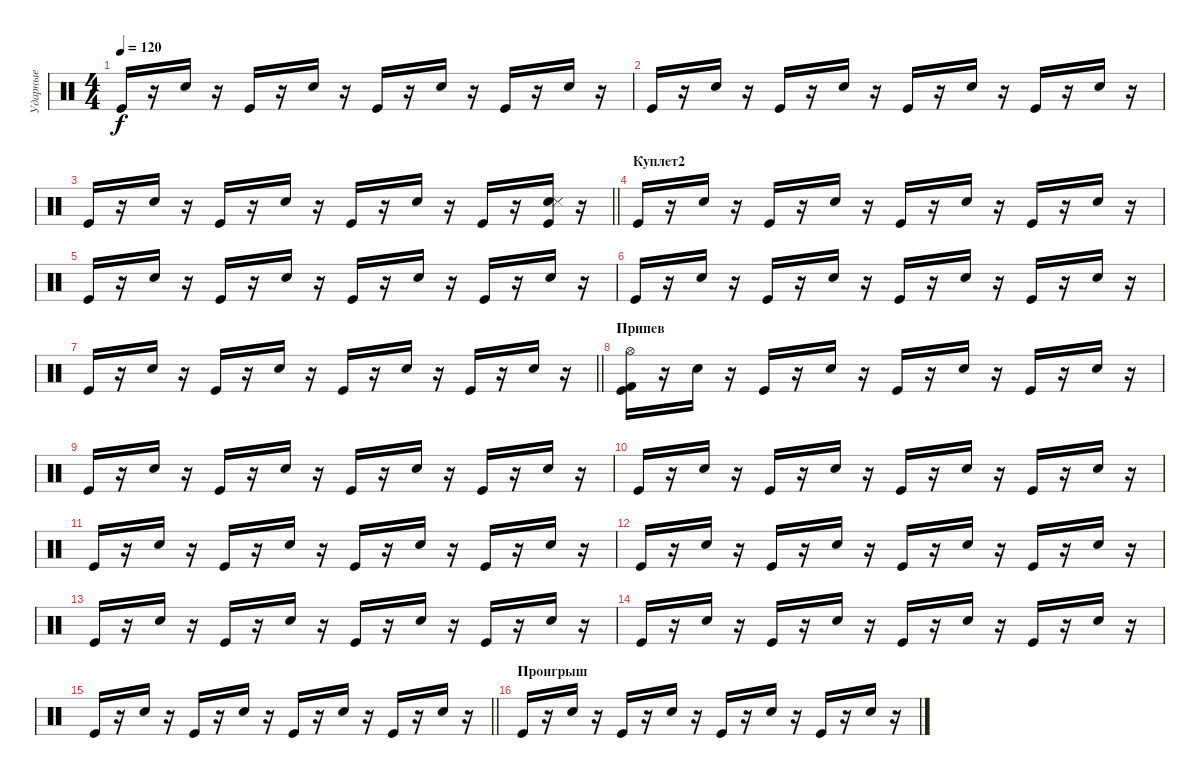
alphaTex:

\track ("Ударные" "Ударные") {instrument percussion}
\staff {score}
\articulation defaults
\ts (4 4)
\tempo 120
\clef neutral
\ks c "Kick (hit)".16{dy f}
r.16 "Electric Snare (hit)".16 r.16 "Kick (hit)".16 r.16 "Electric Snare (hit)".16 r.16 "Kick (hit)".16 r.16 "Electric Snare (hit)".16 r.16 "Kick (hit)".16 r.16 "Electric Snare (hit)".16 r.16 |
"Kick (hit)".16 r.16 "Electric Snare (hit)".16 r.16 "Kick (hit)".16 r.16 "Electric Snare (hit)".16 r.16 "Kick (hit)".16 r.16 "Electric Snare (hit)".16 r.16 "Kick (hit)".16 r.16 "Electric Snare (hit)".16 r.16 |
\barLineRight lightlight "Kick (hit)".16
r.16 "Electric Snare (hit)".16 r.16 "Kick (hit)".16 r.16 "Electric Snare (hit)".16 r.16 "Kick (hit)".16 r.16 "Electric Snare (hit)".16 r.16 "Kick (hit)".16 r.16 ("Electric Snare (hit)" "Snare (side stick) 3" "Kick (hit)").16 r.16 |
\section ("" "Куплет2")
"Kick (hit)".16 r.16 "Electric Snare (hit)".16 r.16 "Kick (hit)".16 r.16 "Electric Snare (hit)".16 r.16 "Kick (hit)".16 r.16 "Electric Snare (hit)".16 r.16 "Kick (hit)".16 r.16 "Electric Snare (hit)".16 r.16 |
"Kick (hit)".16 r.16 "Electric Snare (hit)".16 r.16 "Kick (hit)".16 r.16 "Electric Snare (hit)".16 r.16 "Kick (hit)".16 r.16 "Electric Snare (hit)".16 r.16 "Kick (hit)".16 r.16 "Electric Snare (hit)".16 r.16 |
"Kick (hit)".16 r.16 "Electric Snare (hit)".16 r.16 "Kick (hit)".16 r.16 "Electric Snare (hit)".16 r.16 "Kick (hit)".16 r.16 "Electric Snare (hit)".16 r.16 "Kick (hit)".16 r.16 "Electric Snare (hit)".16 r.16 |
\barLineRight lightlight "Kick (hit)".16
r.16 "Electric Snare (hit)".16 r.16 "Kick (hit)".16 r.16 "Electric Snare (hit)".16 r.16 "Kick (hit)".16 r.16 "Electric Snare (hit)".16 r.16 "Kick (hit)".16 r.16 "Electric Snare (hit)".16 r.16 |
\section ("" "Припев")
("Kick (hit)" "Kick (hit) 2" "Hi-Hat (open)").16 r.16 "Electric Snare (hit)".16 r.16 "Kick (hit)".16 r.16 "Electric Snare (hit)".16 r.16 "Kick (hit)".16 r.16 "Electric Snare (hit)".16 r.16 "Kick (hit)".16 r.16 "Electric Snare (hit)".16 r.16 |
"Kick (hit)".16 r.16 "Electric Snare (hit)".16 r.16 "Kick (hit)".16 r.16 "Electric Snare (hit)".16 r.16 "Kick (hit)".16 r.16 "Electric Snare (hit)".16 r.16 "Kick (hit)".16 r.16 "Electric Snare (hit)".16 r.16 |
"Kick (hit)".16 r.16 "Electric Snare (hit)".16 r.16 "Kick (hit)".16 r.16 "Electric Snare (hit)".16 r.16 "Kick (hit)".16 r.16 "Electric Snare (hit)".16 r.16 "Kick (hit)".16 r.16 "Electric Snare (hit)".16 r.16 |
"Kick (hit)".16 r.16 "Electric Snare (hit)".16 r.16 "Kick (hit)".16 r.16 "Electric Snare (hit)".16 r.16 "Kick (hit)".16 r.16 "Electric Snare (hit)".16 r.16 "Kick (hit)".16 r.16 "Electric Snare (hit)".16 r.16 |
"Kick (hit)".16 r.16 "Electric Snare (hit)".16 r.16 "Kick (hit)".16 r.16 "Electric Snare (hit)".16 r.16 "Kick (hit)".16 r.16 "Electric Snare (hit)".16 r.16 "Kick (hit)".16 r.16 "Electric Snare (hit)".16 r.16 |
"Kick (hit)".16 r.16 "Electric Snare (hit)".16 r.16 "Kick (hit)".16 r.16 "Electric Snare (hit)".16 r.16 "Kick (hit)".16 r.16 "Electric Snare (hit)".16 r.16 "Kick (hit)".16 r.16 "Electric Snare (hit)".16 r.16 |
"Kick (hit)".16 r.16 "Electric Snare (hit)".16 r.16 "Kick (hit)".16 r.16 "Electric Snare (hit)".16 r.16 "Kick (hit)".16 r.16 "Electric Snare (hit)".16 r.16 "Kick (hit)".16 r.16 "Electric Snare (hit)".16 r.16 |
\barLineRight lightlight "Kick (hit)".16
r.16 "Electric Snare (hit)".16 r.16 "Kick (hit)".16 r.16 "Electric Snare (hit)".16 r.16 "Kick (hit)".16 r.16 "Electric Snare (hit)".16 r.16 "Kick (hit)".16 r.16 "Electric Snare (hit)".16 r.16 |
\section ("" "Проигрыш")
"Kick (hit)".16 r.16 "Electric Snare (hit)".16 r.16 "Kick (hit)".16 r.16 "Electric Snare (hit)".16 r.16 "Kick (hit)".16 r.16 "Electric Snare (hit)".16 r.16 "Kick (hit)".16 r.16 "Electric Snare (hit)".16 r.16
